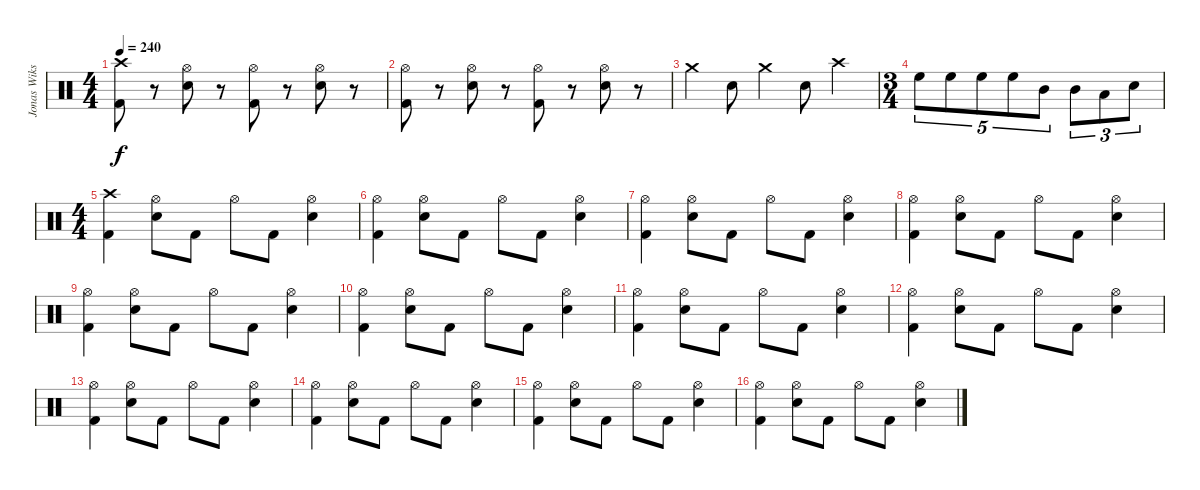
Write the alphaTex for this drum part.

\track ("Jonas Wikstrand" "Jonas Wiks") {instrument percussion}
\staff {score}
\articulation defaults
\ts (4 4)
\tempo 240
\clef neutral
\ks c
("Crash high (hit)" "Kick (hit) 2").8{dy f} r.8 ("Hi-Hat (open)" "Snare (hit) 2").8 r.8 ("Hi-Hat (open)" "Kick (hit) 2").8 r.8 ("Hi-Hat (open)" "Snare (hit) 2").8 r.8 |
("Hi-Hat (open)" "Kick (hit) 2").8 r.8 ("Hi-Hat (open)" "Snare (hit) 2").8 r.8 ("Hi-Hat (open)" "Kick (hit) 2").8 r.8 ("Hi-Hat (open)" "Snare (hit) 2").8 r.8 |
"Crash medium (hit)".4 "Snare (hit) 2".8 "Crash medium (hit)".4 "Snare (hit) 2".8 "Crash high (hit)".4 |
\ts (3 4)
"High Floor Tom (hit)".8{tu (5 4)} "High Floor Tom (hit)".8{tu (5 4)} "High Floor Tom (hit)".8{tu (5 4)} "High Floor Tom (hit)".8{tu (5 4)} "Mid Tom (hit)".8{tu (5 4)} "Mid Tom (hit)".8{tu (3 2)} "Low Floor Tom (hit)".8{tu (3 2)} "Snare (hit) 2".8{tu (3 2)} |
\ts (4 4)
("Crash high (hit)" "Kick (hit) 2").4 ("Hi-Hat (open)" "Snare (hit) 2").8 "Kick (hit) 2".8 "Hi-Hat (open)".8 "Kick (hit) 2".8 ("Hi-Hat (open)" "Snare (hit) 2").4 |
("Hi-Hat (open)" "Kick (hit) 2").4 ("Hi-Hat (open)" "Snare (hit) 2").8 "Kick (hit) 2".8 "Hi-Hat (open)".8 "Kick (hit) 2".8 ("Hi-Hat (open)" "Snare (hit) 2").4 |
("Hi-Hat (open)" "Kick (hit) 2").4 ("Hi-Hat (open)" "Snare (hit) 2").8 "Kick (hit) 2".8 "Hi-Hat (open)".8 "Kick (hit) 2".8 ("Hi-Hat (open)" "Snare (hit) 2").4 |
("Hi-Hat (open)" "Kick (hit) 2").4 ("Hi-Hat (open)" "Snare (hit) 2").8 "Kick (hit) 2".8 "Hi-Hat (open)".8 "Kick (hit) 2".8 ("Hi-Hat (open)" "Snare (hit) 2").4 |
("Hi-Hat (open)" "Kick (hit) 2").4 ("Hi-Hat (open)" "Snare (hit) 2").8 "Kick (hit) 2".8 "Hi-Hat (open)".8 "Kick (hit) 2".8 ("Hi-Hat (open)" "Snare (hit) 2").4 |
("Hi-Hat (open)" "Kick (hit) 2").4 ("Hi-Hat (open)" "Snare (hit) 2").8 "Kick (hit) 2".8 "Hi-Hat (open)".8 "Kick (hit) 2".8 ("Hi-Hat (open)" "Snare (hit) 2").4 |
("Hi-Hat (open)" "Kick (hit) 2").4 ("Hi-Hat (open)" "Snare (hit) 2").8 "Kick (hit) 2".8 "Hi-Hat (open)".8 "Kick (hit) 2".8 ("Hi-Hat (open)" "Snare (hit) 2").4 |
("Hi-Hat (open)" "Kick (hit) 2").4 ("Hi-Hat (open)" "Snare (hit) 2").8 "Kick (hit) 2".8 "Hi-Hat (open)".8 "Kick (hit) 2".8 ("Hi-Hat (open)" "Snare (hit) 2").4 |
("Hi-Hat (open)" "Kick (hit) 2").4 ("Hi-Hat (open)" "Snare (hit) 2").8 "Kick (hit) 2".8 "Hi-Hat (open)".8 "Kick (hit) 2".8 ("Hi-Hat (open)" "Snare (hit) 2").4 |
("Hi-Hat (open)" "Kick (hit) 2").4 ("Hi-Hat (open)" "Snare (hit) 2").8 "Kick (hit) 2".8 "Hi-Hat (open)".8 "Kick (hit) 2".8 ("Hi-Hat (open)" "Snare (hit) 2").4 |
("Hi-Hat (open)" "Kick (hit) 2").4 ("Hi-Hat (open)" "Snare (hit) 2").8 "Kick (hit) 2".8 "Hi-Hat (open)".8 "Kick (hit) 2".8 ("Hi-Hat (open)" "Snare (hit) 2").4 |
("Hi-Hat (open)" "Kick (hit) 2").4 ("Hi-Hat (open)" "Snare (hit) 2").8 "Kick (hit) 2".8 "Hi-Hat (open)".8 "Kick (hit) 2".8 ("Hi-Hat (open)" "Snare (hit) 2").4
